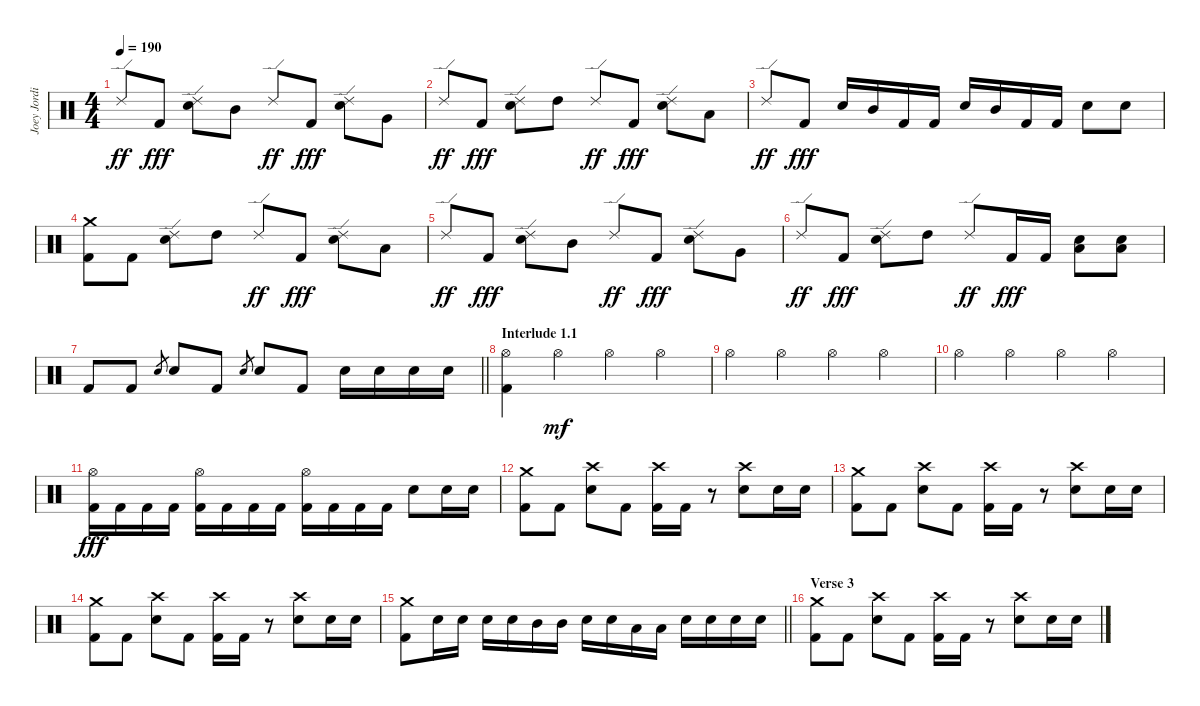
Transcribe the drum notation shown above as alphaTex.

\track ("Joey Jordison" "Joey Jordi") {instrument percussion}
\staff {score}
\articulation defaults
\ts (4 4)
\tempo 190
\clef neutral
\ks c "Ride (edge) 2".8{dy ff} "Kick (hit) 2".8{dy fff}
("Ride (edge) 2" "Electric Snare (hit)").8 "Mid Tom (hit)".8 "Ride (edge) 2".8{dy ff} "Kick (hit) 2".8{dy fff} ("Ride (edge) 2" "Electric Snare (hit)").8 "Very Low Tom (hit)".8 |
"Ride (edge) 2".8{dy ff} "Kick (hit) 2".8{dy fff} ("Ride (edge) 2" "Electric Snare (hit)").8 "High Tom (hit)".8 "Ride (edge) 2".8{dy ff} "Kick (hit) 2".8{dy fff} ("Ride (edge) 2" "Electric Snare (hit)").8 "Low Tom (hit)".8 |
"Ride (edge) 2".8{dy ff} "Kick (hit) 2".8{dy fff} "Electric Snare (hit)".16 "Mid Tom (hit)".16 "Kick (hit) 2".16 "Kick (hit) 2".16 "Electric Snare (hit)".16 "Mid Tom (hit)".16 "Kick (hit) 2".16 "Kick (hit) 2".16 "Electric Snare (hit)".8 "Electric Snare (hit)".8 |
("Crash medium (hit)" "Kick (hit) 2").8 "Kick (hit) 2".8 ("Ride (edge) 2" "Electric Snare (hit)").8 "High Tom (hit)".8 "Ride (edge) 2".8{dy ff} "Kick (hit) 2".8{dy fff} ("Ride (edge) 2" "Electric Snare (hit)").8 "Low Tom (hit)".8 |
"Ride (edge) 2".8{dy ff} "Kick (hit) 2".8{dy fff} ("Ride (edge) 2" "Electric Snare (hit)").8 "Mid Tom (hit)".8 "Ride (edge) 2".8{dy ff} "Kick (hit) 2".8{dy fff} ("Ride (edge) 2" "Electric Snare (hit)").8 "Very Low Tom (hit)".8 |
"Ride (edge) 2".8{dy ff} "Kick (hit) 2".8{dy fff} ("Ride (edge) 2" "Electric Snare (hit)").8 "High Tom (hit)".8 "Ride (edge) 2".8{dy ff} "Kick (hit) 2".16{dy fff} "Kick (hit) 2".16 ("Electric Snare (hit)" "Low Floor Tom (hit)").8 ("Electric Snare (hit)" "Low Floor Tom (hit)").8 |
\barLineRight lightlight "Kick (hit) 2".8 "Kick (hit) 2".8 "Electric Snare (hit)".8{gr} "Electric Snare (hit)".8 "Kick (hit) 2".8 "Electric Snare (hit)".8{gr} "Electric Snare (hit)".8 "Kick (hit) 2".8 "Electric Snare (hit)".16 "Electric Snare (hit)".16 "Electric Snare (hit)".16 "Electric Snare (hit)".16
|
\section ("" "Interlude 1.1")
("Hi-Hat (open)" "Kick (hit) 2").4 "Hi-Hat (open)".4{dy mf} "Hi-Hat (open)".4 "Hi-Hat (open)".4 |
"Hi-Hat (open)".4 "Hi-Hat (open)".4 "Hi-Hat (open)".4 "Hi-Hat (open)".4 |
"Hi-Hat (open)".4 "Hi-Hat (open)".4 "Hi-Hat (open)".4 "Hi-Hat (open)".4 |
("Hi-Hat (open)" "Kick (hit) 2").16{dy fff} "Kick (hit) 2".16 "Kick (hit) 2".16 "Kick (hit) 2".16 ("Hi-Hat (open)" "Kick (hit) 2").16 "Kick (hit) 2".16 "Kick (hit) 2".16 "Kick (hit) 2".16 ("Hi-Hat (open)" "Kick (hit) 2").16 "Kick (hit) 2".16 "Kick (hit) 2".16 "Kick (hit) 2".16 "Electric Snare (hit)".8 "Electric Snare (hit)".16 "Electric Snare (hit)".16 |
("Crash medium (hit)" "Kick (hit) 2").8 "Kick (hit) 2".8 ("Crash high (hit)" "Electric Snare (hit)").8 "Kick (hit) 2".8 ("Crash high (hit)" "Kick (hit) 2").16 "Kick (hit) 2".16 r.8 ("Crash high (hit)" "Electric Snare (hit)").8 "Electric Snare (hit)".16 "Electric Snare (hit)".16 |
("Crash medium (hit)" "Kick (hit) 2").8 "Kick (hit) 2".8 ("Crash high (hit)" "Electric Snare (hit)").8 "Kick (hit) 2".8 ("Crash high (hit)" "Kick (hit) 2").16 "Kick (hit) 2".16 r.8 ("Crash high (hit)" "Electric Snare (hit)").8 "Electric Snare (hit)".16 "Electric Snare (hit)".16 |
("Crash medium (hit)" "Kick (hit) 2").8 "Kick (hit) 2".8 ("Crash high (hit)" "Electric Snare (hit)").8 "Kick (hit) 2".8 ("Crash high (hit)" "Kick (hit) 2").16 "Kick (hit) 2".16 r.8 ("Crash high (hit)" "Electric Snare (hit)").8 "Electric Snare (hit)".16 "Electric Snare (hit)".16 |
\barLineRight lightlight
("Crash medium (hit)" "Kick (hit) 2").8 "Electric Snare (hit)".16 "Electric Snare (hit)".16 "Electric Snare (hit)".16 "Electric Snare (hit)".16 "Mid Tom (hit)".16 "Mid Tom (hit)".16 "Electric Snare (hit)".16 "Electric Snare (hit)".16 "Low Tom (hit)".16 "Low Tom (hit)".16 "Electric Snare (hit)".16 "Electric Snare (hit)".16 "Electric Snare (hit)".16 "Electric Snare (hit)".16 |
\section ("" "Verse 3")
("Crash medium (hit)" "Kick (hit) 2").8 "Kick (hit) 2".8 ("Crash high (hit)" "Electric Snare (hit)").8 "Kick (hit) 2".8 ("Crash high (hit)" "Kick (hit) 2").16 "Kick (hit) 2".16 r.8 ("Crash high (hit)" "Electric Snare (hit)").8 "Electric Snare (hit)".16 "Electric Snare (hit)".16
